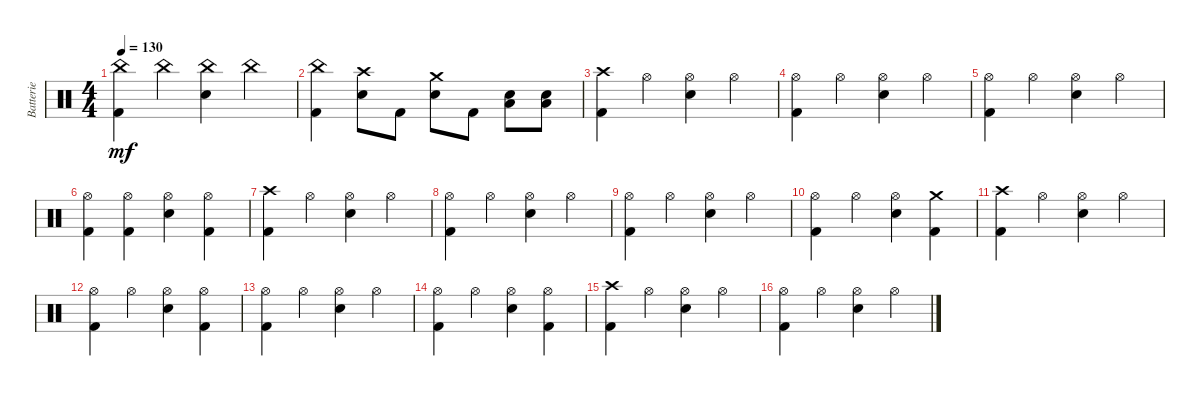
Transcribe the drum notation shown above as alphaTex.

\track ("Batterie" "Batterie") {instrument percussion}
\staff {score}
\articulation defaults
\ts (4 4)
\tempo 130
\clef neutral
\ks c
("China (hit)" "Kick (hit) 2").4{dy mf} "China (hit)".4 ("China (hit)" "Electric Snare (hit)").4 "China (hit)".4 |
("China (hit)" "Kick (hit) 2").4 ("Crash high (hit)" "Electric Snare (hit)").8 "Kick (hit) 2".8 ("Crash medium (hit)" "Electric Snare (hit)").8 "Kick (hit) 2".8 ("Electric Snare (hit)" "Low Floor Tom (hit)").8 ("Electric Snare (hit)" "Low Floor Tom (hit)").8 |
("Crash high (hit)" "Kick (hit) 2").4 "Hi-Hat (open)".4 ("Hi-Hat (open)" "Electric Snare (hit)").4 "Hi-Hat (open)".4 |
("Hi-Hat (open)" "Kick (hit) 2").4 "Hi-Hat (open)".4 ("Hi-Hat (open)" "Electric Snare (hit)").4 "Hi-Hat (open)".4 |
("Hi-Hat (open)" "Kick (hit) 2").4 "Hi-Hat (open)".4 ("Hi-Hat (open)" "Electric Snare (hit)").4 "Hi-Hat (open)".4 |
("Hi-Hat (open)" "Kick (hit) 2").4 ("Hi-Hat (open)" "Kick (hit) 2").4 ("Hi-Hat (open)" "Electric Snare (hit)").4 ("Hi-Hat (open)" "Kick (hit) 2").4 |
("Crash high (hit)" "Kick (hit) 2").4 "Hi-Hat (open)".4 ("Hi-Hat (open)" "Electric Snare (hit)").4 "Hi-Hat (open)".4 |
("Hi-Hat (open)" "Kick (hit) 2").4 "Hi-Hat (open)".4 ("Hi-Hat (open)" "Electric Snare (hit)").4 "Hi-Hat (open)".4 |
("Hi-Hat (open)" "Kick (hit) 2").4 "Hi-Hat (open)".4 ("Hi-Hat (open)" "Electric Snare (hit)").4 "Hi-Hat (open)".4 |
("Hi-Hat (open)" "Kick (hit) 2").4 "Hi-Hat (open)".4 ("Hi-Hat (open)" "Electric Snare (hit)").4 ("Crash medium (hit)" "Kick (hit) 2").4 |
("Crash high (hit)" "Kick (hit) 2").4 "Hi-Hat (open)".4 ("Hi-Hat (open)" "Electric Snare (hit)").4 "Hi-Hat (open)".4 |
("Hi-Hat (open)" "Kick (hit) 2").4 "Hi-Hat (open)".4 ("Hi-Hat (open)" "Electric Snare (hit)").4 ("Hi-Hat (open)" "Kick (hit) 2").4 |
("Hi-Hat (open)" "Kick (hit) 2").4 "Hi-Hat (open)".4 ("Hi-Hat (open)" "Electric Snare (hit)").4 "Hi-Hat (open)".4 |
("Hi-Hat (open)" "Kick (hit) 2").4 "Hi-Hat (open)".4 ("Hi-Hat (open)" "Electric Snare (hit)").4 ("Hi-Hat (open)" "Kick (hit) 2").4 |
("Crash high (hit)" "Kick (hit) 2").4 "Hi-Hat (open)".4 ("Hi-Hat (open)" "Electric Snare (hit)").4 "Hi-Hat (open)".4 |
("Hi-Hat (open)" "Kick (hit) 2").4 "Hi-Hat (open)".4 ("Hi-Hat (open)" "Electric Snare (hit)").4 "Hi-Hat (open)".4
